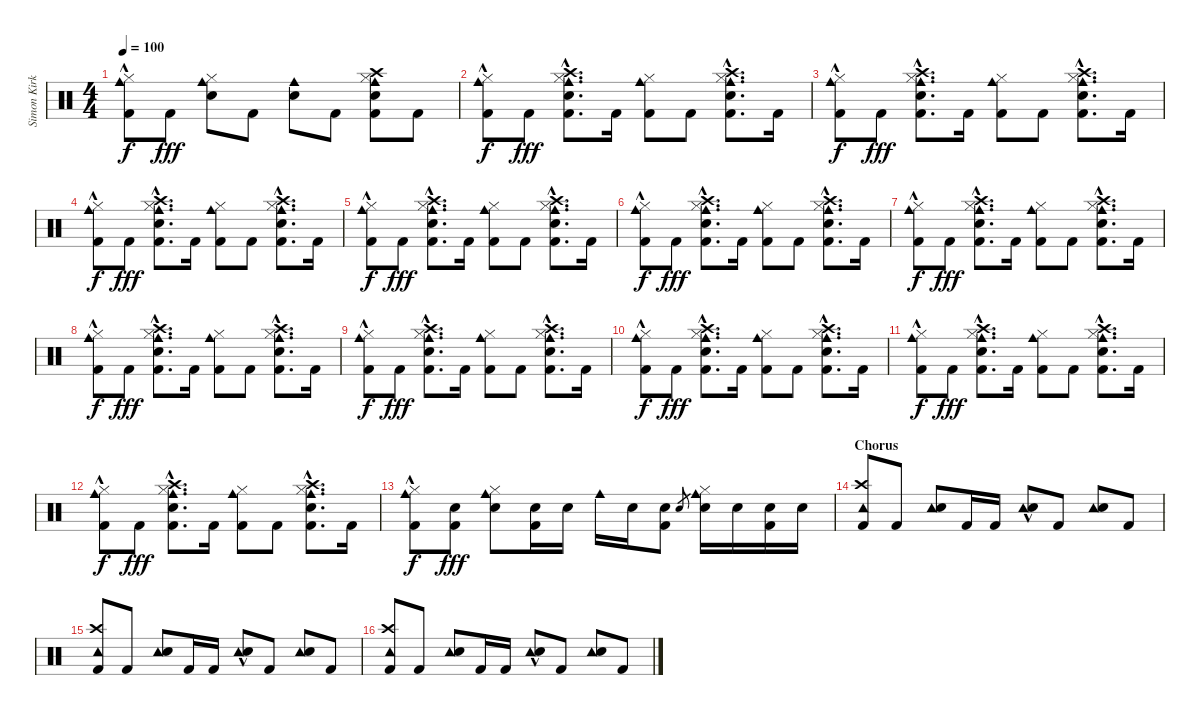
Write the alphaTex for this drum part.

\track ("Simon Kirke" "Simon Kirk") {instrument percussion}
\staff {score}
\articulation defaults
\ts (4 4)
\tempo 100
\clef neutral
\ks c
("Kick (hit) 2"{hac} "Cowbell medium (hit)"{hac} "Hi-Hat (closed)"{hac}).8{dy f} "Kick (hit) 2".8{dy fff} ("Cowbell medium (hit)" "Electric Snare (hit)" "Hi-Hat (closed)").8 "Kick (hit) 2".8 ("Cowbell medium (hit)" "Electric Snare (hit)").8 "Kick (hit) 2".8 ("Cowbell medium (hit)" "Electric Snare (hit)" "Hi-Hat (closed)" "Kick (hit) 2" "Crash high (hit)").8 "Kick (hit) 2".8 |
("Kick (hit) 2"{hac} "Cowbell medium (hit)"{hac} "Hi-Hat (closed)"{hac}).8{dy f} "Kick (hit) 2".8{dy fff} ("Kick (hit) 2" "Cowbell medium (hit)"{hac} "Electric Snare (hit)"{hac} "Hi-Hat (closed)"{hac} "Crash high (hit)"{hac}).8{d} "Kick (hit) 2".16 ("Kick (hit) 2" "Cowbell medium (hit)" "Hi-Hat (closed)").8 "Kick (hit) 2".8 ("Kick (hit) 2" "Cowbell medium (hit)"{hac} "Electric Snare (hit)"{hac} "Hi-Hat (closed)"{hac} "Crash high (hit)"{hac}).8{d} "Kick (hit) 2".16 |
("Kick (hit) 2"{hac} "Cowbell medium (hit)"{hac} "Hi-Hat (closed)"{hac}).8{dy f} "Kick (hit) 2".8{dy fff} ("Kick (hit) 2" "Cowbell medium (hit)"{hac} "Electric Snare (hit)"{hac} "Hi-Hat (closed)"{hac} "Crash high (hit)"{hac}).8{d} "Kick (hit) 2".16 ("Kick (hit) 2" "Cowbell medium (hit)" "Hi-Hat (closed)").8 "Kick (hit) 2".8 ("Kick (hit) 2" "Cowbell medium (hit)"{hac} "Electric Snare (hit)"{hac} "Hi-Hat (closed)"{hac} "Crash high (hit)"{hac}).8{d} "Kick (hit) 2".16 |
("Kick (hit) 2"{hac} "Cowbell medium (hit)"{hac} "Hi-Hat (closed)"{hac}).8{dy f} "Kick (hit) 2".8{dy fff} ("Kick (hit) 2" "Cowbell medium (hit)"{hac} "Electric Snare (hit)"{hac} "Hi-Hat (closed)"{hac} "Crash high (hit)"{hac}).8{d} "Kick (hit) 2".16 ("Kick (hit) 2" "Cowbell medium (hit)" "Hi-Hat (closed)").8 "Kick (hit) 2".8 ("Kick (hit) 2" "Cowbell medium (hit)"{hac} "Electric Snare (hit)"{hac} "Hi-Hat (closed)"{hac} "Crash high (hit)"{hac}).8{d} "Kick (hit) 2".16 |
("Kick (hit) 2"{hac} "Cowbell medium (hit)"{hac} "Hi-Hat (closed)"{hac}).8{dy f} "Kick (hit) 2".8{dy fff} ("Kick (hit) 2" "Cowbell medium (hit)"{hac} "Electric Snare (hit)"{hac} "Hi-Hat (closed)"{hac} "Crash high (hit)"{hac}).8{d} "Kick (hit) 2".16 ("Kick (hit) 2" "Cowbell medium (hit)" "Hi-Hat (closed)").8 "Kick (hit) 2".8 ("Kick (hit) 2" "Cowbell medium (hit)"{hac} "Electric Snare (hit)"{hac} "Hi-Hat (closed)"{hac} "Crash high (hit)"{hac}).8{d} "Kick (hit) 2".16 |
("Kick (hit) 2"{hac} "Cowbell medium (hit)"{hac} "Hi-Hat (closed)"{hac}).8{dy f} "Kick (hit) 2".8{dy fff} ("Kick (hit) 2" "Cowbell medium (hit)"{hac} "Electric Snare (hit)"{hac} "Hi-Hat (closed)"{hac} "Crash high (hit)"{hac}).8{d} "Kick (hit) 2".16 ("Kick (hit) 2" "Cowbell medium (hit)" "Hi-Hat (closed)").8 "Kick (hit) 2".8 ("Kick (hit) 2" "Cowbell medium (hit)"{hac} "Electric Snare (hit)"{hac} "Hi-Hat (closed)"{hac} "Crash high (hit)"{hac}).8{d} "Kick (hit) 2".16 |
("Kick (hit) 2"{hac} "Cowbell medium (hit)"{hac} "Hi-Hat (closed)"{hac}).8{dy f} "Kick (hit) 2".8{dy fff} ("Kick (hit) 2" "Cowbell medium (hit)"{hac} "Electric Snare (hit)"{hac} "Hi-Hat (closed)"{hac} "Crash high (hit)"{hac}).8{d} "Kick (hit) 2".16 ("Kick (hit) 2" "Cowbell medium (hit)" "Hi-Hat (closed)").8 "Kick (hit) 2".8 ("Kick (hit) 2" "Cowbell medium (hit)"{hac} "Electric Snare (hit)"{hac} "Hi-Hat (closed)"{hac} "Crash high (hit)"{hac}).8{d} "Kick (hit) 2".16 |
("Kick (hit) 2"{hac} "Cowbell medium (hit)"{hac} "Hi-Hat (closed)"{hac}).8{dy f} "Kick (hit) 2".8{dy fff} ("Kick (hit) 2" "Cowbell medium (hit)"{hac} "Electric Snare (hit)"{hac} "Hi-Hat (closed)"{hac} "Crash high (hit)"{hac}).8{d} "Kick (hit) 2".16 ("Kick (hit) 2" "Cowbell medium (hit)" "Hi-Hat (closed)").8 "Kick (hit) 2".8 ("Kick (hit) 2" "Cowbell medium (hit)"{hac} "Electric Snare (hit)"{hac} "Hi-Hat (closed)"{hac} "Crash high (hit)"{hac}).8{d} "Kick (hit) 2".16 |
("Kick (hit) 2"{hac} "Cowbell medium (hit)"{hac} "Hi-Hat (closed)"{hac}).8{dy f} "Kick (hit) 2".8{dy fff} ("Kick (hit) 2" "Cowbell medium (hit)"{hac} "Electric Snare (hit)"{hac} "Hi-Hat (closed)"{hac} "Crash high (hit)"{hac}).8{d} "Kick (hit) 2".16 ("Kick (hit) 2" "Cowbell medium (hit)" "Hi-Hat (closed)").8 "Kick (hit) 2".8 ("Kick (hit) 2" "Cowbell medium (hit)"{hac} "Electric Snare (hit)"{hac} "Hi-Hat (closed)"{hac} "Crash high (hit)"{hac}).8{d} "Kick (hit) 2".16 |
("Kick (hit) 2"{hac} "Cowbell medium (hit)"{hac} "Hi-Hat (closed)"{hac}).8{dy f} "Kick (hit) 2".8{dy fff} ("Kick (hit) 2" "Cowbell medium (hit)"{hac} "Electric Snare (hit)"{hac} "Hi-Hat (closed)"{hac} "Crash high (hit)"{hac}).8{d} "Kick (hit) 2".16 ("Kick (hit) 2" "Cowbell medium (hit)" "Hi-Hat (closed)").8 "Kick (hit) 2".8 ("Kick (hit) 2" "Cowbell medium (hit)"{hac} "Electric Snare (hit)"{hac} "Hi-Hat (closed)"{hac} "Crash high (hit)"{hac}).8{d} "Kick (hit) 2".16 |
("Kick (hit) 2"{hac} "Cowbell medium (hit)"{hac} "Hi-Hat (closed)"{hac}).8{dy f} "Kick (hit) 2".8{dy fff} ("Kick (hit) 2" "Cowbell medium (hit)"{hac} "Electric Snare (hit)"{hac} "Hi-Hat (closed)"{hac} "Crash high (hit)"{hac}).8{d} "Kick (hit) 2".16 ("Kick (hit) 2" "Cowbell medium (hit)" "Hi-Hat (closed)").8 "Kick (hit) 2".8 ("Kick (hit) 2" "Cowbell medium (hit)"{hac} "Electric Snare (hit)"{hac} "Hi-Hat (closed)"{hac} "Crash high (hit)"{hac}).8{d} "Kick (hit) 2".16 |
("Kick (hit) 2"{hac} "Cowbell medium (hit)"{hac} "Hi-Hat (closed)"{hac}).8{dy f} "Kick (hit) 2".8{dy fff} ("Kick (hit) 2" "Cowbell medium (hit)"{hac} "Electric Snare (hit)"{hac} "Hi-Hat (closed)"{hac} "Crash high (hit)"{hac}).8{d} "Kick (hit) 2".16 ("Kick (hit) 2" "Cowbell medium (hit)" "Hi-Hat (closed)").8 "Kick (hit) 2".8 ("Kick (hit) 2" "Cowbell medium (hit)"{hac} "Electric Snare (hit)"{hac} "Hi-Hat (closed)"{hac} "Crash high (hit)"{hac}).8{d} "Kick (hit) 2".16 |
("Kick (hit) 2"{hac} "Cowbell medium (hit)"{hac} "Hi-Hat (closed)"{hac}).8{dy f} ("Kick (hit) 2" "Electric Snare (hit)").8{dy fff} ("Cowbell medium (hit)" "Electric Snare (hit)" "Hi-Hat (closed)").8 ("Kick (hit) 2" "Electric Snare (hit)").16 "Electric Snare (hit)".16 "Cowbell medium (hit)".16 "Electric Snare (hit)".16 ("Electric Snare (hit)" "Kick (hit) 2").8 "Electric Snare (hit)".8{gr} ("Cowbell medium (hit)" "Electric Snare (hit)" "Hi-Hat (closed)").16 "Electric Snare (hit)".16 ("Electric Snare (hit)" "Kick (hit) 2").16 "Electric Snare (hit)".16 |
\section ("" "Chorus")
("Tambourine (hit)" "Crash high (hit)" "Kick (hit) 2").8 "Kick (hit) 2".8 ("Tambourine (hit)" "Electric Snare (hit)").8 "Kick (hit) 2".16 "Kick (hit) 2".16 ("Tambourine (hit)"{hac} "Electric Snare (hit)").8 "Kick (hit) 2".8 ("Tambourine (hit)" "Electric Snare (hit)").8 "Kick (hit) 2".8 |
("Tambourine (hit)" "Crash high (hit)" "Kick (hit) 2").8 "Kick (hit) 2".8 ("Tambourine (hit)" "Electric Snare (hit)").8 "Kick (hit) 2".16 "Kick (hit) 2".16 ("Tambourine (hit)"{hac} "Electric Snare (hit)").8 "Kick (hit) 2".8 ("Tambourine (hit)" "Electric Snare (hit)").8 "Kick (hit) 2".8 |
("Tambourine (hit)" "Crash high (hit)" "Kick (hit) 2").8 "Kick (hit) 2".8 ("Tambourine (hit)" "Electric Snare (hit)").8 "Kick (hit) 2".16 "Kick (hit) 2".16 ("Tambourine (hit)"{hac} "Electric Snare (hit)").8 "Kick (hit) 2".8 ("Tambourine (hit)" "Electric Snare (hit)").8 "Kick (hit) 2".8
